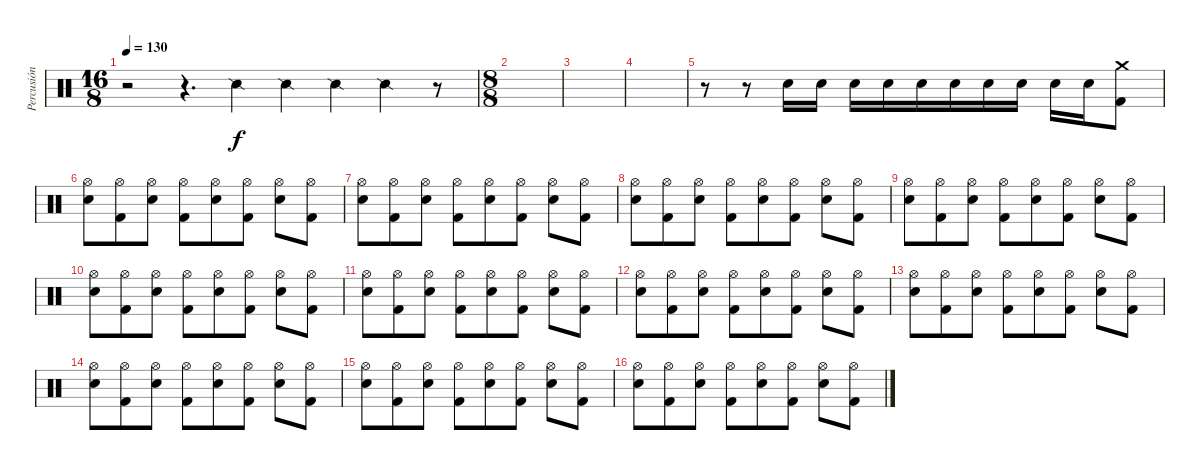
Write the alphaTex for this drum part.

\track ("Percusión" "Percusión") {instrument percussion}
\staff {score}
\articulation defaults
\ts (16 8)
\tempo 130
\clef neutral
\ks c
r.2{dy f} r.4{d} "Snare (side stick) 2".4 "Snare (side stick) 2".4 "Snare (side stick) 2".4 "Snare (side stick) 2".4 r.8 |
\ts (8 8)
|
|
|
r.8 r.8 "Snare (hit) 2".16 "Snare (hit) 2".16 "Snare (hit) 2".16 "Snare (hit) 2".16 "Snare (hit) 2".16 "Snare (hit) 2".16 "Snare (hit) 2".16 "Snare (hit) 2".16 "Snare (hit) 2".16 "Snare (hit) 2".16 ("Crash medium (hit)" "Kick (hit) 2").8 |
("Hi-Hat (open)" "Snare (hit) 2").8 ("Hi-Hat (open)" "Kick (hit) 2").8 ("Hi-Hat (open)" "Snare (hit) 2").8 ("Hi-Hat (open)" "Kick (hit) 2").8 ("Hi-Hat (open)" "Snare (hit) 2").8 ("Hi-Hat (open)" "Kick (hit) 2").8 ("Hi-Hat (open)" "Snare (hit) 2").8 ("Hi-Hat (open)" "Kick (hit) 2").8 |
("Hi-Hat (open)" "Snare (hit) 2").8 ("Hi-Hat (open)" "Kick (hit) 2").8 ("Hi-Hat (open)" "Snare (hit) 2").8 ("Hi-Hat (open)" "Kick (hit) 2").8 ("Hi-Hat (open)" "Snare (hit) 2").8 ("Hi-Hat (open)" "Kick (hit) 2").8 ("Hi-Hat (open)" "Snare (hit) 2").8 ("Hi-Hat (open)" "Kick (hit) 2").8 |
("Hi-Hat (open)" "Snare (hit) 2").8 ("Hi-Hat (open)" "Kick (hit) 2").8 ("Hi-Hat (open)" "Snare (hit) 2").8 ("Hi-Hat (open)" "Kick (hit) 2").8 ("Hi-Hat (open)" "Snare (hit) 2").8 ("Hi-Hat (open)" "Kick (hit) 2").8 ("Hi-Hat (open)" "Snare (hit) 2").8 ("Hi-Hat (open)" "Kick (hit) 2").8 |
("Hi-Hat (open)" "Snare (hit) 2").8 ("Hi-Hat (open)" "Kick (hit) 2").8 ("Hi-Hat (open)" "Snare (hit) 2").8 ("Hi-Hat (open)" "Kick (hit) 2").8 ("Hi-Hat (open)" "Snare (hit) 2").8 ("Hi-Hat (open)" "Kick (hit) 2").8 ("Hi-Hat (open)" "Snare (hit) 2").8 ("Hi-Hat (open)" "Kick (hit) 2").8 |
("Hi-Hat (open)" "Snare (hit) 2").8 ("Hi-Hat (open)" "Kick (hit) 2").8 ("Hi-Hat (open)" "Snare (hit) 2").8 ("Hi-Hat (open)" "Kick (hit) 2").8 ("Hi-Hat (open)" "Snare (hit) 2").8 ("Hi-Hat (open)" "Kick (hit) 2").8 ("Hi-Hat (open)" "Snare (hit) 2").8 ("Hi-Hat (open)" "Kick (hit) 2").8 |
("Hi-Hat (open)" "Snare (hit) 2").8 ("Hi-Hat (open)" "Kick (hit) 2").8 ("Hi-Hat (open)" "Snare (hit) 2").8 ("Hi-Hat (open)" "Kick (hit) 2").8 ("Hi-Hat (open)" "Snare (hit) 2").8 ("Hi-Hat (open)" "Kick (hit) 2").8 ("Hi-Hat (open)" "Snare (hit) 2").8 ("Hi-Hat (open)" "Kick (hit) 2").8 |
("Hi-Hat (open)" "Snare (hit) 2").8 ("Hi-Hat (open)" "Kick (hit) 2").8 ("Hi-Hat (open)" "Snare (hit) 2").8 ("Hi-Hat (open)" "Kick (hit) 2").8 ("Hi-Hat (open)" "Snare (hit) 2").8 ("Hi-Hat (open)" "Kick (hit) 2").8 ("Hi-Hat (open)" "Snare (hit) 2").8 ("Hi-Hat (open)" "Kick (hit) 2").8 |
("Hi-Hat (open)" "Snare (hit) 2").8 ("Hi-Hat (open)" "Kick (hit) 2").8 ("Hi-Hat (open)" "Snare (hit) 2").8 ("Hi-Hat (open)" "Kick (hit) 2").8 ("Hi-Hat (open)" "Snare (hit) 2").8 ("Hi-Hat (open)" "Kick (hit) 2").8 ("Hi-Hat (open)" "Snare (hit) 2").8 ("Hi-Hat (open)" "Kick (hit) 2").8 |
("Hi-Hat (open)" "Snare (hit) 2").8 ("Hi-Hat (open)" "Kick (hit) 2").8 ("Hi-Hat (open)" "Snare (hit) 2").8 ("Hi-Hat (open)" "Kick (hit) 2").8 ("Hi-Hat (open)" "Snare (hit) 2").8 ("Hi-Hat (open)" "Kick (hit) 2").8 ("Hi-Hat (open)" "Snare (hit) 2").8 ("Hi-Hat (open)" "Kick (hit) 2").8 |
("Hi-Hat (open)" "Snare (hit) 2").8 ("Hi-Hat (open)" "Kick (hit) 2").8 ("Hi-Hat (open)" "Snare (hit) 2").8 ("Hi-Hat (open)" "Kick (hit) 2").8 ("Hi-Hat (open)" "Snare (hit) 2").8 ("Hi-Hat (open)" "Kick (hit) 2").8 ("Hi-Hat (open)" "Snare (hit) 2").8 ("Hi-Hat (open)" "Kick (hit) 2").8 |
("Hi-Hat (open)" "Snare (hit) 2").8 ("Hi-Hat (open)" "Kick (hit) 2").8 ("Hi-Hat (open)" "Snare (hit) 2").8 ("Hi-Hat (open)" "Kick (hit) 2").8 ("Hi-Hat (open)" "Snare (hit) 2").8 ("Hi-Hat (open)" "Kick (hit) 2").8 ("Hi-Hat (open)" "Snare (hit) 2").8 ("Hi-Hat (open)" "Kick (hit) 2").8
